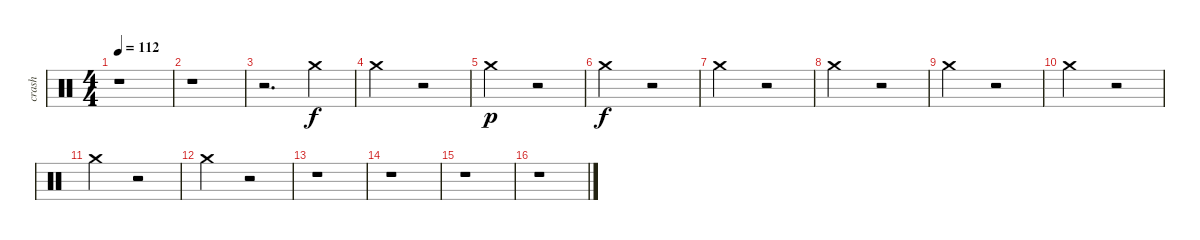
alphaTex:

\track ("crash" "crash") {instrument percussion}
\staff {score}
\articulation defaults
\ts (4 4)
\tempo 112
\clef neutral
\ks c
r.1{dy f} |
r.1 |
r.2{d} "Crash medium (hit)".4 |
"Crash medium (hit)".2 r.2 |
"Crash medium (hit)".2{dy p} r.2 |
"Crash medium (hit)".2{dy f} r.2 |
"Crash medium (hit)".2 r.2 |
"Crash medium (hit)".2 r.2 |
"Crash medium (hit)".2 r.2 |
"Crash medium (hit)".2 r.2 |
"Crash medium (hit)".2 r.2 |
"Crash medium (hit)".2 r.2 |
r.1 |
r.1 |
r.1 |
r.1
